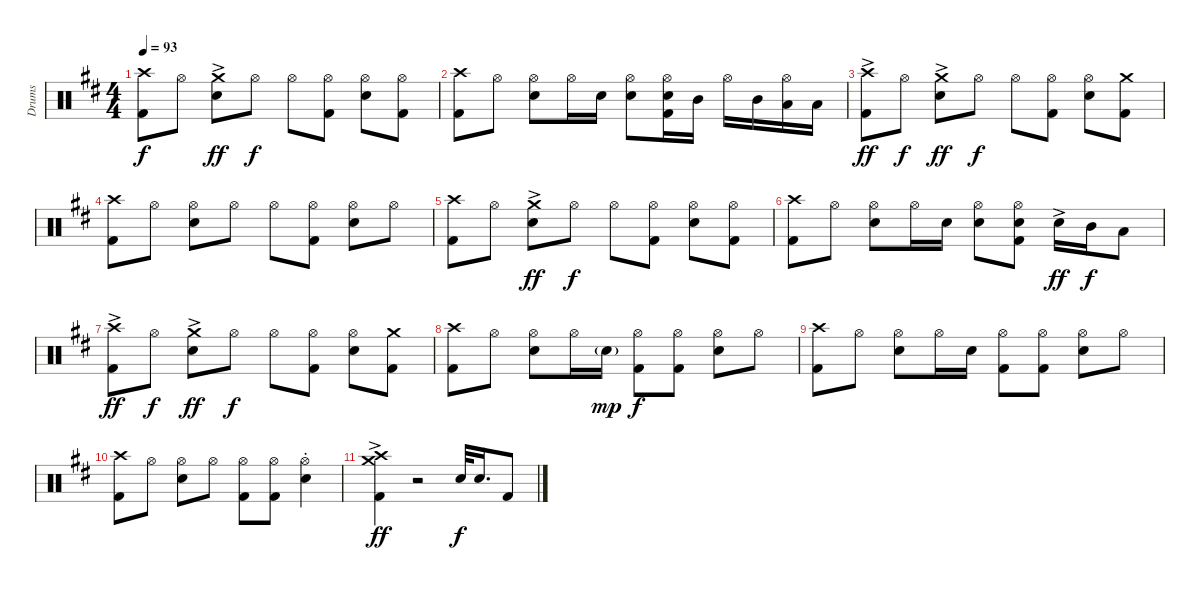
\track ("Drums" "Drums") {instrument percussion}
\staff {score}
\articulation defaults
\ts (4 4)
\tempo 93
\clef neutral
\ks d
("Crash high (hit)" "Kick (hit) 2").8{dy f} "Hi-Hat (open)".8 ("Crash medium (hit)"{ac} "Electric Snare (hit)").8{dy ff} "Hi-Hat (open)".8{dy f} "Hi-Hat (open)".8 ("Hi-Hat (open)" "Kick (hit) 2").8 ("Hi-Hat (open)" "Electric Snare (hit)").8 ("Hi-Hat (open)" "Kick (hit) 2").8 |
("Crash high (hit)" "Kick (hit) 2").8 "Hi-Hat (open)".8 ("Hi-Hat (open)" "Electric Snare (hit)").8 "Hi-Hat (open)".16 "Electric Snare (hit)".16 ("Hi-Hat (open)" "Electric Snare (hit)").8 ("Hi-Hat (open)" "Electric Snare (hit)" "Kick (hit) 2").16 "Mid Tom (hit)".16 "Hi-Hat (open)".16 "Mid Tom (hit)".16 ("Hi-Hat (open)" "Low Tom (hit)").16 "Low Tom (hit)".16 |
("Crash high (hit)"{ac} "Kick (hit) 2").8{dy ff} "Hi-Hat (open)".8{dy f} ("Crash medium (hit)"{ac} "Electric Snare (hit)").8{dy ff} "Hi-Hat (open)".8{dy f} "Hi-Hat (open)".8 ("Hi-Hat (open)" "Kick (hit) 2").8 ("Hi-Hat (open)" "Electric Snare (hit)").8 ("Crash medium (hit)" "Kick (hit) 2").8 |
("Crash high (hit)" "Kick (hit) 2").8 "Hi-Hat (open)".8 ("Hi-Hat (open)" "Electric Snare (hit)").8 "Hi-Hat (open)".8 "Hi-Hat (open)".8 ("Hi-Hat (open)" "Kick (hit) 2").8 ("Hi-Hat (open)" "Electric Snare (hit)").8 "Hi-Hat (open)".8 |
("Crash high (hit)" "Kick (hit) 2").8 "Hi-Hat (open)".8 ("Crash medium (hit)"{ac} "Electric Snare (hit)").8{dy ff} "Hi-Hat (open)".8{dy f} "Hi-Hat (open)".8 ("Hi-Hat (open)" "Kick (hit) 2").8 ("Hi-Hat (open)" "Electric Snare (hit)").8 ("Hi-Hat (open)" "Kick (hit) 2").8 |
("Crash high (hit)" "Kick (hit) 2").8 "Hi-Hat (open)".8 ("Hi-Hat (open)" "Electric Snare (hit)").8 "Hi-Hat (open)".16 "Electric Snare (hit)".16 ("Hi-Hat (open)" "Electric Snare (hit)").8 ("Hi-Hat (open)" "Electric Snare (hit)" "Kick (hit) 2").8 "Electric Snare (hit)"{ac}.16{dy ff} "Mid Tom (hit)".16{dy f} "Low Tom (hit)".8 |
("Crash high (hit)"{ac} "Kick (hit) 2").8{dy ff} "Hi-Hat (open)".8{dy f} ("Crash medium (hit)"{ac} "Electric Snare (hit)").8{dy ff} "Hi-Hat (open)".8{dy f} "Hi-Hat (open)".8 ("Hi-Hat (open)" "Kick (hit) 2").8 ("Hi-Hat (open)" "Electric Snare (hit)").8 ("Crash medium (hit)" "Kick (hit) 2").8 |
("Crash high (hit)" "Kick (hit) 2").8 "Hi-Hat (open)".8 ("Hi-Hat (open)" "Electric Snare (hit)").8 "Hi-Hat (open)".16 "Electric Snare (hit)"{g}.16{dy mp} ("Hi-Hat (open)" "Kick (hit) 2").8{dy f} ("Hi-Hat (open)" "Kick (hit) 2").8 ("Hi-Hat (open)" "Electric Snare (hit)").8 "Hi-Hat (open)".8 |
("Crash high (hit)" "Kick (hit) 2").8 "Hi-Hat (open)".8 ("Hi-Hat (open)" "Electric Snare (hit)").8 "Hi-Hat (open)".16 "Electric Snare (hit)".16 ("Hi-Hat (open)" "Kick (hit) 2").8 ("Hi-Hat (open)" "Kick (hit) 2").8 ("Hi-Hat (open)" "Electric Snare (hit)").8 "Hi-Hat (open)".8 |
("Crash high (hit)" "Kick (hit) 2").8 "Hi-Hat (open)".8 ("Hi-Hat (open)" "Electric Snare (hit)").8 "Hi-Hat (open)".8 ("Hi-Hat (open)" "Kick (hit) 2").8 ("Hi-Hat (open)" "Kick (hit) 2").8 ("Hi-Hat (open)"{st} "Electric Snare (hit)"{st}).4 |
("Crash high (hit)"{ac} "Crash medium (hit)"{ac} "Kick (hit) 2").4{dy ff} r.2 "Electric Snare (hit)".32{dy f} "Electric Snare (hit)".16{d} "Kick (hit) 2".8
